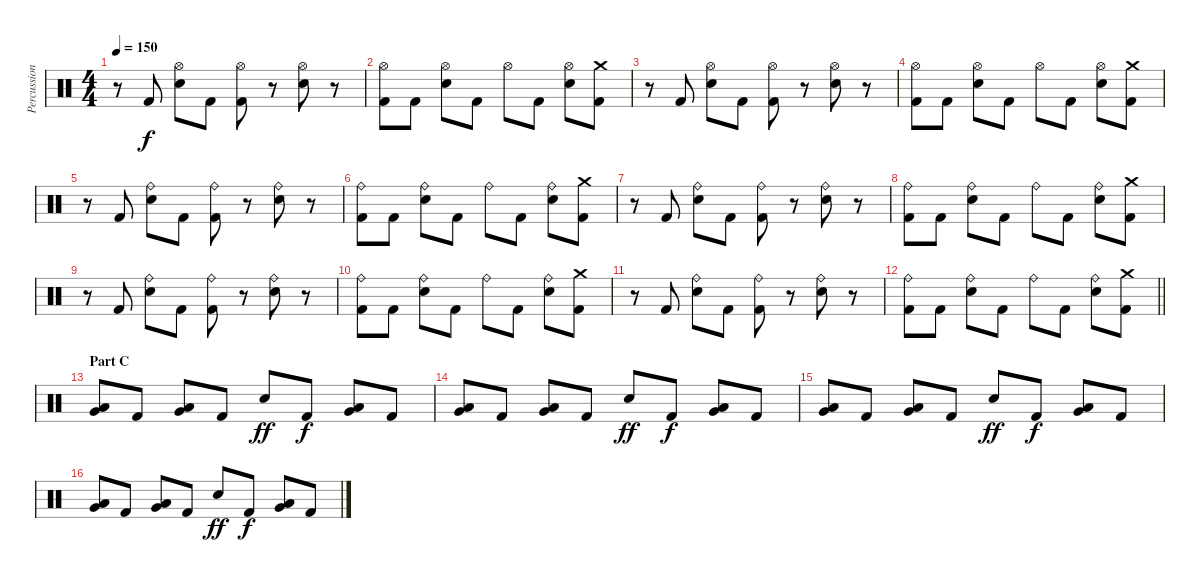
\track ("Percussion" "Percussion") {instrument percussion}
\staff {score}
\articulation defaults
\ts (4 4)
\tempo 150
\clef neutral
\ks c
r.8{dy f} "Kick (hit) 2".8 ("Hi-Hat (open)" "Electric Snare (hit)").8 "Kick (hit) 2".8 ("Hi-Hat (open)" "Kick (hit) 2").8 r.8 ("Hi-Hat (open)" "Electric Snare (hit)").8 r.8 |
("Hi-Hat (open)" "Kick (hit) 2").8 "Kick (hit) 2".8 ("Hi-Hat (open)" "Electric Snare (hit)").8 "Kick (hit) 2".8 "Hi-Hat (open)".8 "Kick (hit) 2".8 ("Hi-Hat (open)" "Electric Snare (hit)").8 ("Crash medium (hit)" "Kick (hit) 2").8 |
r.8 "Kick (hit) 2".8 ("Hi-Hat (open)" "Electric Snare (hit)").8 "Kick (hit) 2".8 ("Hi-Hat (open)" "Kick (hit) 2").8 r.8 ("Hi-Hat (open)" "Electric Snare (hit)").8 r.8 |
("Hi-Hat (open)" "Kick (hit) 2").8 "Kick (hit) 2".8 ("Hi-Hat (open)" "Electric Snare (hit)").8 "Kick (hit) 2".8 "Hi-Hat (open)".8 "Kick (hit) 2".8 ("Hi-Hat (open)" "Electric Snare (hit)").8 ("Crash medium (hit)" "Kick (hit) 2").8 |
r.8 "Kick (hit) 2".8 ("Ride (bell)" "Electric Snare (hit)").8 "Kick (hit) 2".8 ("Ride (bell)" "Kick (hit) 2").8 r.8 ("Ride (bell)" "Electric Snare (hit)").8 r.8 |
("Ride (bell)" "Kick (hit) 2").8 "Kick (hit) 2".8 ("Ride (bell)" "Electric Snare (hit)").8 "Kick (hit) 2".8 "Ride (bell)".8 "Kick (hit) 2".8 ("Ride (bell)" "Electric Snare (hit)").8 ("Crash medium (hit)" "Kick (hit) 2").8 |
r.8 "Kick (hit) 2".8 ("Ride (bell)" "Electric Snare (hit)").8 "Kick (hit) 2".8 ("Ride (bell)" "Kick (hit) 2").8 r.8 ("Ride (bell)" "Electric Snare (hit)").8 r.8 |
("Ride (bell)" "Kick (hit) 2").8 "Kick (hit) 2".8 ("Ride (bell)" "Electric Snare (hit)").8 "Kick (hit) 2".8 "Ride (bell)".8 "Kick (hit) 2".8 ("Ride (bell)" "Electric Snare (hit)").8 ("Crash medium (hit)" "Kick (hit) 2").8 |
r.8 "Kick (hit) 2".8 ("Ride (bell)" "Electric Snare (hit)").8 "Kick (hit) 2".8 ("Ride (bell)" "Kick (hit) 2").8 r.8 ("Ride (bell)" "Electric Snare (hit)").8 r.8 |
("Ride (bell)" "Kick (hit) 2").8 "Kick (hit) 2".8 ("Ride (bell)" "Electric Snare (hit)").8 "Kick (hit) 2".8 "Ride (bell)".8 "Kick (hit) 2".8 ("Ride (bell)" "Electric Snare (hit)").8 ("Crash medium (hit)" "Kick (hit) 2").8 |
r.8 "Kick (hit) 2".8 ("Ride (bell)" "Electric Snare (hit)").8 "Kick (hit) 2".8 ("Ride (bell)" "Kick (hit) 2").8 r.8 ("Ride (bell)" "Electric Snare (hit)").8 r.8 |
\barLineRight lightlight
("Ride (bell)" "Kick (hit) 2").8 "Kick (hit) 2".8 ("Ride (bell)" "Electric Snare (hit)").8 "Kick (hit) 2".8 "Ride (bell)".8 "Kick (hit) 2".8 ("Ride (bell)" "Electric Snare (hit)").8 ("Crash medium (hit)" "Kick (hit) 2").8 |
\section ("" "Part C")
("Very Low Tom (hit)" "Low Floor Tom (hit)").8 "Kick (hit) 2".8 ("Very Low Tom (hit)" "Low Floor Tom (hit)").8 "Kick (hit) 2".8 "Electric Snare (hit)".8{dy ff} "Kick (hit) 2".8{dy f} ("Very Low Tom (hit)" "Low Floor Tom (hit)").8 "Kick (hit) 2".8 |
("Very Low Tom (hit)" "Low Floor Tom (hit)").8 "Kick (hit) 2".8 ("Very Low Tom (hit)" "Low Floor Tom (hit)").8 "Kick (hit) 2".8 "Electric Snare (hit)".8{dy ff} "Kick (hit) 2".8{dy f} ("Very Low Tom (hit)" "Low Floor Tom (hit)").8 "Kick (hit) 2".8 |
("Very Low Tom (hit)" "Low Floor Tom (hit)").8 "Kick (hit) 2".8 ("Very Low Tom (hit)" "Low Floor Tom (hit)").8 "Kick (hit) 2".8 "Electric Snare (hit)".8{dy ff} "Kick (hit) 2".8{dy f} ("Very Low Tom (hit)" "Low Floor Tom (hit)").8 "Kick (hit) 2".8 |
("Very Low Tom (hit)" "Low Floor Tom (hit)").8 "Kick (hit) 2".8 ("Very Low Tom (hit)" "Low Floor Tom (hit)").8 "Kick (hit) 2".8 "Electric Snare (hit)".8{dy ff} "Kick (hit) 2".8{dy f} ("Very Low Tom (hit)" "Low Floor Tom (hit)").8 "Kick (hit) 2".8
